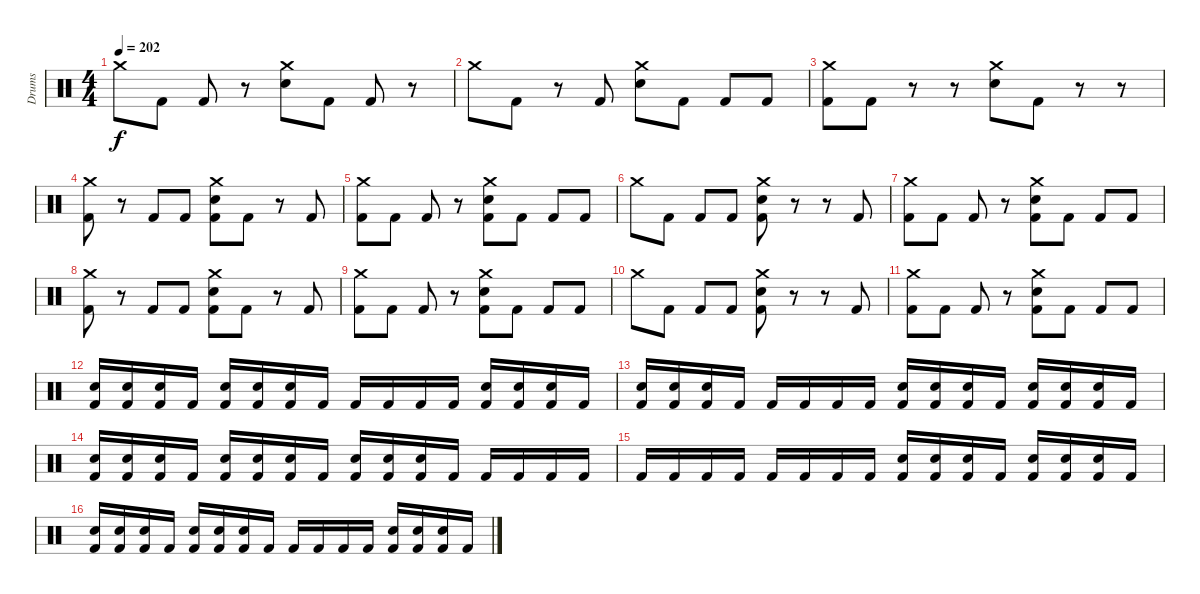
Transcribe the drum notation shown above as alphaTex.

\track ("Drums" "Drums") {instrument percussion}
\staff {score}
\articulation defaults
\ts (4 4)
\tempo 202
\clef neutral
\ks c "Crash medium (hit)".8{dy f} "Kick (hit) 2".8 "Kick (hit) 2".8
r.8 ("Crash medium (hit)" "Electric Snare (hit)").8 "Kick (hit) 2".8 "Kick (hit) 2".8 r.8 |
"Crash medium (hit)".8 "Kick (hit) 2".8 r.8 "Kick (hit) 2".8 ("Crash medium (hit)" "Electric Snare (hit)").8 "Kick (hit) 2".8 "Kick (hit) 2".8 "Kick (hit) 2".8 |
("Crash medium (hit)" "Kick (hit) 2").8 "Kick (hit) 2".8 r.8 r.8 ("Crash medium (hit)" "Electric Snare (hit)").8 "Kick (hit) 2".8 r.8 r.8 |
("Crash medium (hit)" "Kick (hit) 2").8 r.8 "Kick (hit) 2".8 "Kick (hit) 2".8 ("Crash medium (hit)" "Electric Snare (hit)" "Kick (hit) 2").8 "Kick (hit) 2".8 r.8 "Kick (hit) 2".8 |
("Crash medium (hit)" "Kick (hit) 2").8 "Kick (hit) 2".8 "Kick (hit) 2".8 r.8 ("Crash medium (hit)" "Electric Snare (hit)" "Kick (hit) 2").8 "Kick (hit) 2".8 "Kick (hit) 2".8 "Kick (hit) 2".8 |
"Crash medium (hit)".8 "Kick (hit) 2".8 "Kick (hit) 2".8 "Kick (hit) 2".8 ("Crash medium (hit)" "Electric Snare (hit)" "Kick (hit) 2").8 r.8 r.8 "Kick (hit) 2".8 |
("Crash medium (hit)" "Kick (hit) 2").8 "Kick (hit) 2".8 "Kick (hit) 2".8 r.8 ("Crash medium (hit)" "Electric Snare (hit)" "Kick (hit) 2").8 "Kick (hit) 2".8 "Kick (hit) 2".8 "Kick (hit) 2".8 |
("Crash medium (hit)" "Kick (hit) 2").8 r.8 "Kick (hit) 2".8 "Kick (hit) 2".8 ("Crash medium (hit)" "Electric Snare (hit)" "Kick (hit) 2").8 "Kick (hit) 2".8 r.8 "Kick (hit) 2".8 |
("Crash medium (hit)" "Kick (hit) 2").8 "Kick (hit) 2".8 "Kick (hit) 2".8 r.8 ("Crash medium (hit)" "Electric Snare (hit)" "Kick (hit) 2").8 "Kick (hit) 2".8 "Kick (hit) 2".8 "Kick (hit) 2".8 |
"Crash medium (hit)".8 "Kick (hit) 2".8 "Kick (hit) 2".8 "Kick (hit) 2".8 ("Crash medium (hit)" "Electric Snare (hit)" "Kick (hit) 2").8 r.8 r.8 "Kick (hit) 2".8 |
("Crash medium (hit)" "Kick (hit) 2").8 "Kick (hit) 2".8 "Kick (hit) 2".8 r.8 ("Crash medium (hit)" "Electric Snare (hit)" "Kick (hit) 2").8 "Kick (hit) 2".8 "Kick (hit) 2".8 "Kick (hit) 2".8 |
("Electric Snare (hit)" "Kick (hit) 2").16 ("Electric Snare (hit)" "Kick (hit) 2").16 ("Electric Snare (hit)" "Kick (hit) 2").16 "Kick (hit) 2".16 ("Electric Snare (hit)" "Kick (hit) 2").16 ("Electric Snare (hit)" "Kick (hit) 2").16 ("Electric Snare (hit)" "Kick (hit) 2").16 "Kick (hit) 2".16 "Kick (hit) 2".16 "Kick (hit) 2".16 "Kick (hit) 2".16 "Kick (hit) 2".16 ("Electric Snare (hit)" "Kick (hit) 2").16 ("Electric Snare (hit)" "Kick (hit) 2").16 ("Electric Snare (hit)" "Kick (hit) 2").16 "Kick (hit) 2".16 |
("Electric Snare (hit)" "Kick (hit) 2").16 ("Electric Snare (hit)" "Kick (hit) 2").16 ("Electric Snare (hit)" "Kick (hit) 2").16 "Kick (hit) 2".16 "Kick (hit) 2".16 "Kick (hit) 2".16 "Kick (hit) 2".16 "Kick (hit) 2".16 ("Electric Snare (hit)" "Kick (hit) 2").16 ("Electric Snare (hit)" "Kick (hit) 2").16 ("Electric Snare (hit)" "Kick (hit) 2").16 "Kick (hit) 2".16 ("Electric Snare (hit)" "Kick (hit) 2").16 ("Electric Snare (hit)" "Kick (hit) 2").16 ("Electric Snare (hit)" "Kick (hit) 2").16 "Kick (hit) 2".16 |
("Electric Snare (hit)" "Kick (hit) 2").16 ("Electric Snare (hit)" "Kick (hit) 2").16 ("Electric Snare (hit)" "Kick (hit) 2").16 "Kick (hit) 2".16 ("Electric Snare (hit)" "Kick (hit) 2").16 ("Electric Snare (hit)" "Kick (hit) 2").16 ("Electric Snare (hit)" "Kick (hit) 2").16 "Kick (hit) 2".16 ("Electric Snare (hit)" "Kick (hit) 2").16 ("Electric Snare (hit)" "Kick (hit) 2").16 ("Electric Snare (hit)" "Kick (hit) 2").16 "Kick (hit) 2".16 "Kick (hit) 2".16 "Kick (hit) 2".16 "Kick (hit) 2".16 "Kick (hit) 2".16 |
"Kick (hit) 2".16 "Kick (hit) 2".16 "Kick (hit) 2".16 "Kick (hit) 2".16 "Kick (hit) 2".16 "Kick (hit) 2".16 "Kick (hit) 2".16 "Kick (hit) 2".16 ("Electric Snare (hit)" "Kick (hit) 2").16 ("Electric Snare (hit)" "Kick (hit) 2").16 ("Electric Snare (hit)" "Kick (hit) 2").16 "Kick (hit) 2".16 ("Electric Snare (hit)" "Kick (hit) 2").16 ("Electric Snare (hit)" "Kick (hit) 2").16 ("Electric Snare (hit)" "Kick (hit) 2").16 "Kick (hit) 2".16 |
("Electric Snare (hit)" "Kick (hit) 2").16 ("Electric Snare (hit)" "Kick (hit) 2").16 ("Electric Snare (hit)" "Kick (hit) 2").16 "Kick (hit) 2".16 ("Electric Snare (hit)" "Kick (hit) 2").16 ("Electric Snare (hit)" "Kick (hit) 2").16 ("Electric Snare (hit)" "Kick (hit) 2").16 "Kick (hit) 2".16 "Kick (hit) 2".16 "Kick (hit) 2".16 "Kick (hit) 2".16 "Kick (hit) 2".16 ("Electric Snare (hit)" "Kick (hit) 2").16 ("Electric Snare (hit)" "Kick (hit) 2").16 ("Electric Snare (hit)" "Kick (hit) 2").16 "Kick (hit) 2".16
